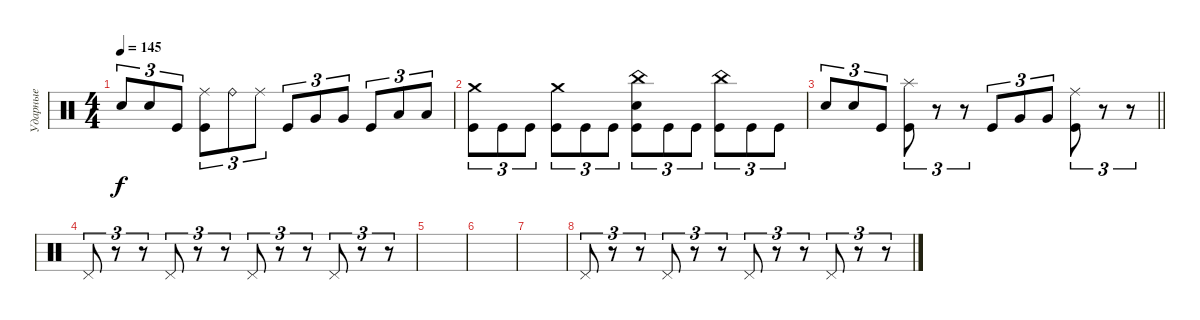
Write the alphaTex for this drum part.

\track ("Ударные" "Ударные") {instrument percussion}
\staff {score}
\articulation defaults
\ts (4 4)
\tempo 145
\clef neutral
\ks c "Electric Snare (hit)".8{tu (3 2) dy f} "Electric Snare (hit)".8{tu (3 2)} "Kick (hit)".8{tu (3 2)}
("Ride (middle)" "Kick (hit)").8{tu (3 2)} "Ride (bell)".8{tu (3 2)} "Ride (middle)".8{tu (3 2)} "Kick (hit)".8{tu (3 2)} "Very Low Tom (hit)".8{tu (3 2)} "Very Low Tom (hit)".8{tu (3 2)} "Kick (hit)".8{tu (3 2)} "Low Tom (hit)".8{tu (3 2)} "Low Tom (hit)".8{tu (3 2)} |
("Crash medium (hit)" "Kick (hit)").8{tu (3 2)} "Kick (hit)".8{tu (3 2)} "Kick (hit)".8{tu (3 2)} ("Crash medium (hit)" "Kick (hit)").8{tu (3 2)} "Kick (hit)".8{tu (3 2)} "Kick (hit)".8{tu (3 2)} ("China (hit)" "Electric Snare (hit)" "Kick (hit)").8{tu (3 2)} "Kick (hit)".8{tu (3 2)} "Kick (hit)".8{tu (3 2)} ("China (hit)" "Kick (hit)").8{tu (3 2)} "Kick (hit)".8{tu (3 2)} "Kick (hit)".8{tu (3 2)} |
\barLineRight lightlight "Electric Snare (hit)".8{tu (3 2)} "Electric Snare (hit)".8{tu (3 2)} "Kick (hit)".8{tu (3 2)}
("Splash (hit)" "Kick (hit)").8{tu (3 2)} r.8{tu (3 2)} r.8{tu (3 2)} "Kick (hit)".8{tu (3 2)} "Very Low Tom (hit)".8{tu (3 2)} "Very Low Tom (hit)".8{tu (3 2)} ("Ride (middle)" "Kick (hit)").8{tu (3 2)} r.8{tu (3 2)} r.8{tu (3 2)} |
\section ("" " ")
"Pedal Hi-Hat (hit)".8{tu (3 2)} r.8{tu (3 2)} r.8{tu (3 2)} "Pedal Hi-Hat (hit)".8{tu (3 2)} r.8{tu (3 2)} r.8{tu (3 2)} "Pedal Hi-Hat (hit)".8{tu (3 2)} r.8{tu (3 2)} r.8{tu (3 2)} "Pedal Hi-Hat (hit)".8{tu (3 2)} r.8{tu (3 2)} r.8{tu (3 2)} |
|
|
|
"Pedal Hi-Hat (hit)".8{tu (3 2)} r.8{tu (3 2)} r.8{tu (3 2)} "Pedal Hi-Hat (hit)".8{tu (3 2)} r.8{tu (3 2)} r.8{tu (3 2)} "Pedal Hi-Hat (hit)".8{tu (3 2)} r.8{tu (3 2)} r.8{tu (3 2)} "Pedal Hi-Hat (hit)".8{tu (3 2)} r.8{tu (3 2)} r.8{tu (3 2)}
